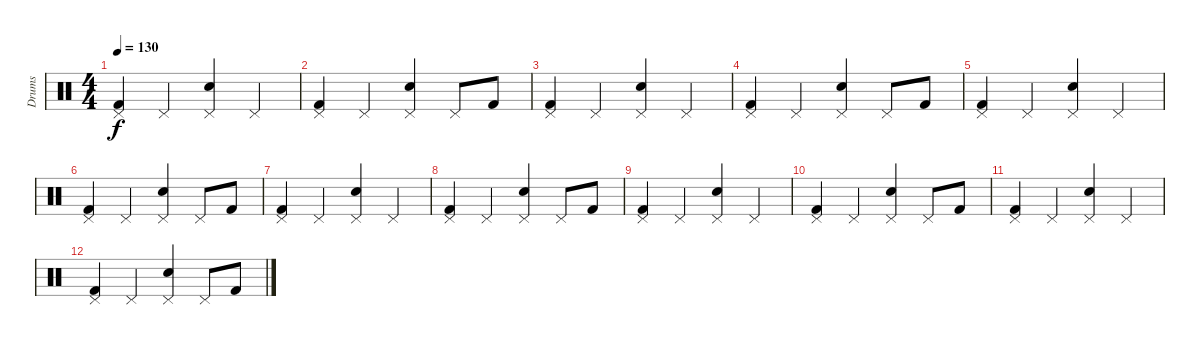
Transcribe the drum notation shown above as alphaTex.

\track ("Drums" "Drums") {instrument percussion}
\staff {score}
\articulation defaults
\ts (4 4)
\tempo 130
\clef neutral
\ks c
("Pedal Hi-Hat (hit)" "Kick (hit) 2").4{dy f} "Pedal Hi-Hat (hit)".4 ("Pedal Hi-Hat (hit)" "Snare (hit) 2").4 "Pedal Hi-Hat (hit)".4 |
("Pedal Hi-Hat (hit)" "Kick (hit) 2").4 "Pedal Hi-Hat (hit)".4 ("Pedal Hi-Hat (hit)" "Snare (hit) 2").4 "Pedal Hi-Hat (hit)".8 "Kick (hit) 2".8 |
("Pedal Hi-Hat (hit)" "Kick (hit) 2").4 "Pedal Hi-Hat (hit)".4 ("Pedal Hi-Hat (hit)" "Snare (hit) 2").4 "Pedal Hi-Hat (hit)".4 |
("Pedal Hi-Hat (hit)" "Kick (hit) 2").4 "Pedal Hi-Hat (hit)".4 ("Pedal Hi-Hat (hit)" "Snare (hit) 2").4 "Pedal Hi-Hat (hit)".8 "Kick (hit) 2".8 |
("Pedal Hi-Hat (hit)" "Kick (hit) 2").4 "Pedal Hi-Hat (hit)".4 ("Pedal Hi-Hat (hit)" "Snare (hit) 2").4 "Pedal Hi-Hat (hit)".4 |
("Pedal Hi-Hat (hit)" "Kick (hit) 2").4 "Pedal Hi-Hat (hit)".4 ("Pedal Hi-Hat (hit)" "Snare (hit) 2").4 "Pedal Hi-Hat (hit)".8 "Kick (hit) 2".8 |
("Pedal Hi-Hat (hit)" "Kick (hit) 2").4 "Pedal Hi-Hat (hit)".4 ("Pedal Hi-Hat (hit)" "Snare (hit) 2").4 "Pedal Hi-Hat (hit)".4 |
("Pedal Hi-Hat (hit)" "Kick (hit) 2").4 "Pedal Hi-Hat (hit)".4 ("Pedal Hi-Hat (hit)" "Snare (hit) 2").4 "Pedal Hi-Hat (hit)".8 "Kick (hit) 2".8 |
("Pedal Hi-Hat (hit)" "Kick (hit) 2").4 "Pedal Hi-Hat (hit)".4 ("Pedal Hi-Hat (hit)" "Snare (hit) 2").4 "Pedal Hi-Hat (hit)".4 |
("Pedal Hi-Hat (hit)" "Kick (hit) 2").4 "Pedal Hi-Hat (hit)".4 ("Pedal Hi-Hat (hit)" "Snare (hit) 2").4 "Pedal Hi-Hat (hit)".8 "Kick (hit) 2".8 |
("Pedal Hi-Hat (hit)" "Kick (hit) 2").4 "Pedal Hi-Hat (hit)".4 ("Pedal Hi-Hat (hit)" "Snare (hit) 2").4 "Pedal Hi-Hat (hit)".4 |
("Pedal Hi-Hat (hit)" "Kick (hit) 2").4 "Pedal Hi-Hat (hit)".4 ("Pedal Hi-Hat (hit)" "Snare (hit) 2").4 "Pedal Hi-Hat (hit)".8 "Kick (hit) 2".8
